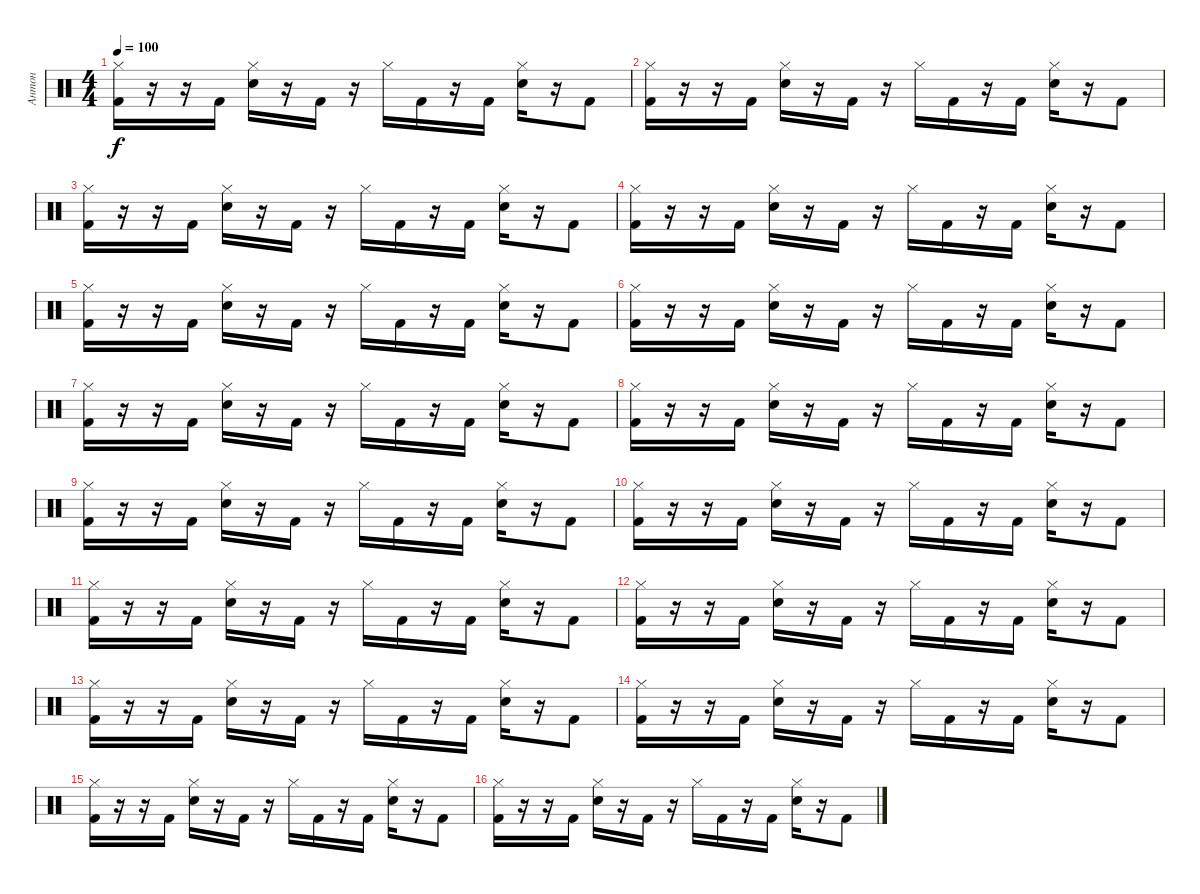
\track ("Антон" "Антон") {instrument percussion}
\staff {score}
\articulation defaults
\ts (4 4)
\tempo 100
\clef neutral
\ks c
("Hi-Hat (closed)" "Kick (hit) 2").16{dy f} r.16 r.16 "Kick (hit) 2".16 ("Hi-Hat (closed)" "Electric Snare (hit)").16 r.16 "Kick (hit) 2".16 r.16 "Hi-Hat (closed)".16 "Kick (hit) 2".16 r.16 "Kick (hit) 2".16 ("Hi-Hat (closed)" "Electric Snare (hit)").16 r.16 "Kick (hit) 2".8 |
("Hi-Hat (closed)" "Kick (hit) 2").16 r.16 r.16 "Kick (hit) 2".16 ("Hi-Hat (closed)" "Electric Snare (hit)").16 r.16 "Kick (hit) 2".16 r.16 "Hi-Hat (closed)".16 "Kick (hit) 2".16 r.16 "Kick (hit) 2".16 ("Hi-Hat (closed)" "Electric Snare (hit)").16 r.16 "Kick (hit) 2".8 |
("Hi-Hat (closed)" "Kick (hit) 2").16 r.16 r.16 "Kick (hit) 2".16 ("Hi-Hat (closed)" "Electric Snare (hit)").16 r.16 "Kick (hit) 2".16 r.16 "Hi-Hat (closed)".16 "Kick (hit) 2".16 r.16 "Kick (hit) 2".16 ("Hi-Hat (closed)" "Electric Snare (hit)").16 r.16 "Kick (hit) 2".8 |
("Hi-Hat (closed)" "Kick (hit) 2").16 r.16 r.16 "Kick (hit) 2".16 ("Hi-Hat (closed)" "Electric Snare (hit)").16 r.16 "Kick (hit) 2".16 r.16 "Hi-Hat (closed)".16 "Kick (hit) 2".16 r.16 "Kick (hit) 2".16 ("Hi-Hat (closed)" "Electric Snare (hit)").16 r.16 "Kick (hit) 2".8 |
("Hi-Hat (closed)" "Kick (hit) 2").16 r.16 r.16 "Kick (hit) 2".16 ("Hi-Hat (closed)" "Electric Snare (hit)").16 r.16 "Kick (hit) 2".16 r.16 "Hi-Hat (closed)".16 "Kick (hit) 2".16 r.16 "Kick (hit) 2".16 ("Hi-Hat (closed)" "Electric Snare (hit)").16 r.16 "Kick (hit) 2".8 |
("Hi-Hat (closed)" "Kick (hit) 2").16 r.16 r.16 "Kick (hit) 2".16 ("Hi-Hat (closed)" "Electric Snare (hit)").16 r.16 "Kick (hit) 2".16 r.16 "Hi-Hat (closed)".16 "Kick (hit) 2".16 r.16 "Kick (hit) 2".16 ("Hi-Hat (closed)" "Electric Snare (hit)").16 r.16 "Kick (hit) 2".8 |
("Hi-Hat (closed)" "Kick (hit) 2").16 r.16 r.16 "Kick (hit) 2".16 ("Hi-Hat (closed)" "Electric Snare (hit)").16 r.16 "Kick (hit) 2".16 r.16 "Hi-Hat (closed)".16 "Kick (hit) 2".16 r.16 "Kick (hit) 2".16 ("Hi-Hat (closed)" "Electric Snare (hit)").16 r.16 "Kick (hit) 2".8 |
("Hi-Hat (closed)" "Kick (hit) 2").16 r.16 r.16 "Kick (hit) 2".16 ("Hi-Hat (closed)" "Electric Snare (hit)").16 r.16 "Kick (hit) 2".16 r.16 "Hi-Hat (closed)".16 "Kick (hit) 2".16 r.16 "Kick (hit) 2".16 ("Hi-Hat (closed)" "Electric Snare (hit)").16 r.16 "Kick (hit) 2".8 |
("Hi-Hat (closed)" "Kick (hit) 2").16 r.16 r.16 "Kick (hit) 2".16 ("Hi-Hat (closed)" "Electric Snare (hit)").16 r.16 "Kick (hit) 2".16 r.16 "Hi-Hat (closed)".16 "Kick (hit) 2".16 r.16 "Kick (hit) 2".16 ("Hi-Hat (closed)" "Electric Snare (hit)").16 r.16 "Kick (hit) 2".8 |
("Hi-Hat (closed)" "Kick (hit) 2").16 r.16 r.16 "Kick (hit) 2".16 ("Hi-Hat (closed)" "Electric Snare (hit)").16 r.16 "Kick (hit) 2".16 r.16 "Hi-Hat (closed)".16 "Kick (hit) 2".16 r.16 "Kick (hit) 2".16 ("Hi-Hat (closed)" "Electric Snare (hit)").16 r.16 "Kick (hit) 2".8 |
("Hi-Hat (closed)" "Kick (hit) 2").16 r.16 r.16 "Kick (hit) 2".16 ("Hi-Hat (closed)" "Electric Snare (hit)").16 r.16 "Kick (hit) 2".16 r.16 "Hi-Hat (closed)".16 "Kick (hit) 2".16 r.16 "Kick (hit) 2".16 ("Hi-Hat (closed)" "Electric Snare (hit)").16 r.16 "Kick (hit) 2".8 |
("Hi-Hat (closed)" "Kick (hit) 2").16 r.16 r.16 "Kick (hit) 2".16 ("Hi-Hat (closed)" "Electric Snare (hit)").16 r.16 "Kick (hit) 2".16 r.16 "Hi-Hat (closed)".16 "Kick (hit) 2".16 r.16 "Kick (hit) 2".16 ("Hi-Hat (closed)" "Electric Snare (hit)").16 r.16 "Kick (hit) 2".8 |
("Hi-Hat (closed)" "Kick (hit) 2").16 r.16 r.16 "Kick (hit) 2".16 ("Hi-Hat (closed)" "Electric Snare (hit)").16 r.16 "Kick (hit) 2".16 r.16 "Hi-Hat (closed)".16 "Kick (hit) 2".16 r.16 "Kick (hit) 2".16 ("Hi-Hat (closed)" "Electric Snare (hit)").16 r.16 "Kick (hit) 2".8 |
("Hi-Hat (closed)" "Kick (hit) 2").16 r.16 r.16 "Kick (hit) 2".16 ("Hi-Hat (closed)" "Electric Snare (hit)").16 r.16 "Kick (hit) 2".16 r.16 "Hi-Hat (closed)".16 "Kick (hit) 2".16 r.16 "Kick (hit) 2".16 ("Hi-Hat (closed)" "Electric Snare (hit)").16 r.16 "Kick (hit) 2".8 |
("Hi-Hat (closed)" "Kick (hit) 2").16 r.16 r.16 "Kick (hit) 2".16 ("Hi-Hat (closed)" "Electric Snare (hit)").16 r.16 "Kick (hit) 2".16 r.16 "Hi-Hat (closed)".16 "Kick (hit) 2".16 r.16 "Kick (hit) 2".16 ("Hi-Hat (closed)" "Electric Snare (hit)").16 r.16 "Kick (hit) 2".8 |
("Hi-Hat (closed)" "Kick (hit) 2").16 r.16 r.16 "Kick (hit) 2".16 ("Hi-Hat (closed)" "Electric Snare (hit)").16 r.16 "Kick (hit) 2".16 r.16 "Hi-Hat (closed)".16 "Kick (hit) 2".16 r.16 "Kick (hit) 2".16 ("Hi-Hat (closed)" "Electric Snare (hit)").16 r.16 "Kick (hit) 2".8
